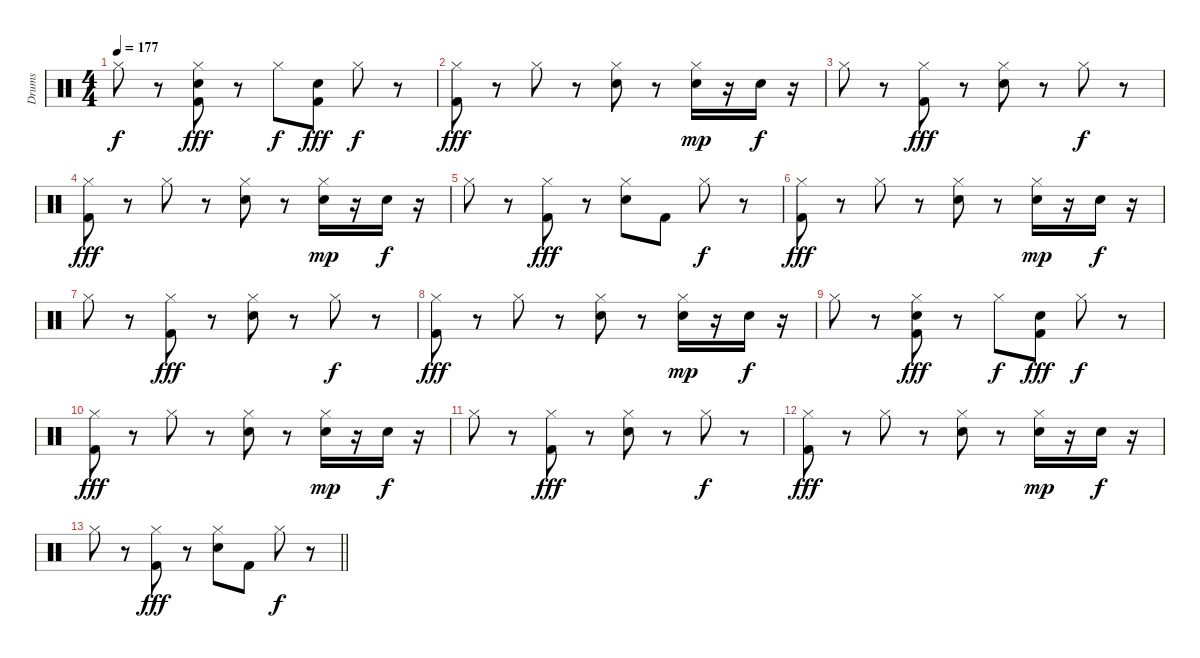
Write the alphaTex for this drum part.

\track ("Drums" "Drums") {instrument percussion}
\staff {score}
\articulation defaults
\ts (4 4)
\tempo 177
\clef neutral
\ks c "Hi-Hat (closed)".8{dy f}
r.8 ("Hi-Hat (closed)" "Snare (hit) 2" "Kick (hit) 2").8{dy fff} r.8 "Hi-Hat (closed)".8{dy f} ("Snare (hit) 2" "Kick (hit) 2").8{dy fff} "Hi-Hat (closed)".8{dy f} r.8 |
("Hi-Hat (closed)" "Kick (hit) 2").8{dy fff} r.8 "Hi-Hat (closed)".8 r.8 ("Hi-Hat (closed)" "Snare (hit) 2").8 r.8 ("Hi-Hat (closed)" "Snare (hit) 2").16{dy mp} r.16 "Snare (hit) 2".16{dy f} r.16 |
"Hi-Hat (closed)".8 r.8 ("Hi-Hat (closed)" "Kick (hit) 2").8{dy fff} r.8 ("Hi-Hat (closed)" "Snare (hit) 2").8 r.8 "Hi-Hat (closed)".8{dy f} r.8 |
("Hi-Hat (closed)" "Kick (hit) 2").8{dy fff} r.8 "Hi-Hat (closed)".8 r.8 ("Hi-Hat (closed)" "Snare (hit) 2").8 r.8 ("Hi-Hat (closed)" "Snare (hit) 2").16{dy mp} r.16 "Snare (hit) 2".16{dy f} r.16 |
"Hi-Hat (closed)".8 r.8 ("Hi-Hat (closed)" "Kick (hit) 2").8{dy fff} r.8 ("Hi-Hat (closed)" "Snare (hit) 2").8 "Kick (hit) 2".8 "Hi-Hat (closed)".8{dy f} r.8 |
("Hi-Hat (closed)" "Kick (hit) 2").8{dy fff} r.8 "Hi-Hat (closed)".8 r.8 ("Hi-Hat (closed)" "Snare (hit) 2").8 r.8 ("Hi-Hat (closed)" "Snare (hit) 2").16{dy mp} r.16 "Snare (hit) 2".16{dy f} r.16 |
"Hi-Hat (closed)".8 r.8 ("Hi-Hat (closed)" "Kick (hit) 2").8{dy fff} r.8 ("Hi-Hat (closed)" "Snare (hit) 2").8 r.8 "Hi-Hat (closed)".8{dy f} r.8 |
("Hi-Hat (closed)" "Kick (hit) 2").8{dy fff} r.8 "Hi-Hat (closed)".8 r.8 ("Hi-Hat (closed)" "Snare (hit) 2").8 r.8 ("Hi-Hat (closed)" "Snare (hit) 2").16{dy mp} r.16 "Snare (hit) 2".16{dy f} r.16 |
"Hi-Hat (closed)".8 r.8 ("Hi-Hat (closed)" "Snare (hit) 2" "Kick (hit) 2").8{dy fff} r.8 "Hi-Hat (closed)".8{dy f} ("Snare (hit) 2" "Kick (hit) 2").8{dy fff} "Hi-Hat (closed)".8{dy f} r.8 |
("Hi-Hat (closed)" "Kick (hit) 2").8{dy fff} r.8 "Hi-Hat (closed)".8 r.8 ("Hi-Hat (closed)" "Snare (hit) 2").8 r.8 ("Hi-Hat (closed)" "Snare (hit) 2").16{dy mp} r.16 "Snare (hit) 2".16{dy f} r.16 |
"Hi-Hat (closed)".8 r.8 ("Hi-Hat (closed)" "Kick (hit) 2").8{dy fff} r.8 ("Hi-Hat (closed)" "Snare (hit) 2").8 r.8 "Hi-Hat (closed)".8{dy f} r.8 |
("Hi-Hat (closed)" "Kick (hit) 2").8{dy fff} r.8 "Hi-Hat (closed)".8 r.8 ("Hi-Hat (closed)" "Snare (hit) 2").8 r.8 ("Hi-Hat (closed)" "Snare (hit) 2").16{dy mp} r.16 "Snare (hit) 2".16{dy f} r.16 |
\barLineRight lightlight "Hi-Hat (closed)".8
r.8 ("Hi-Hat (closed)" "Kick (hit) 2").8{dy fff} r.8 ("Hi-Hat (closed)" "Snare (hit) 2").8 "Kick (hit) 2".8 "Hi-Hat (closed)".8{dy f} r.8
